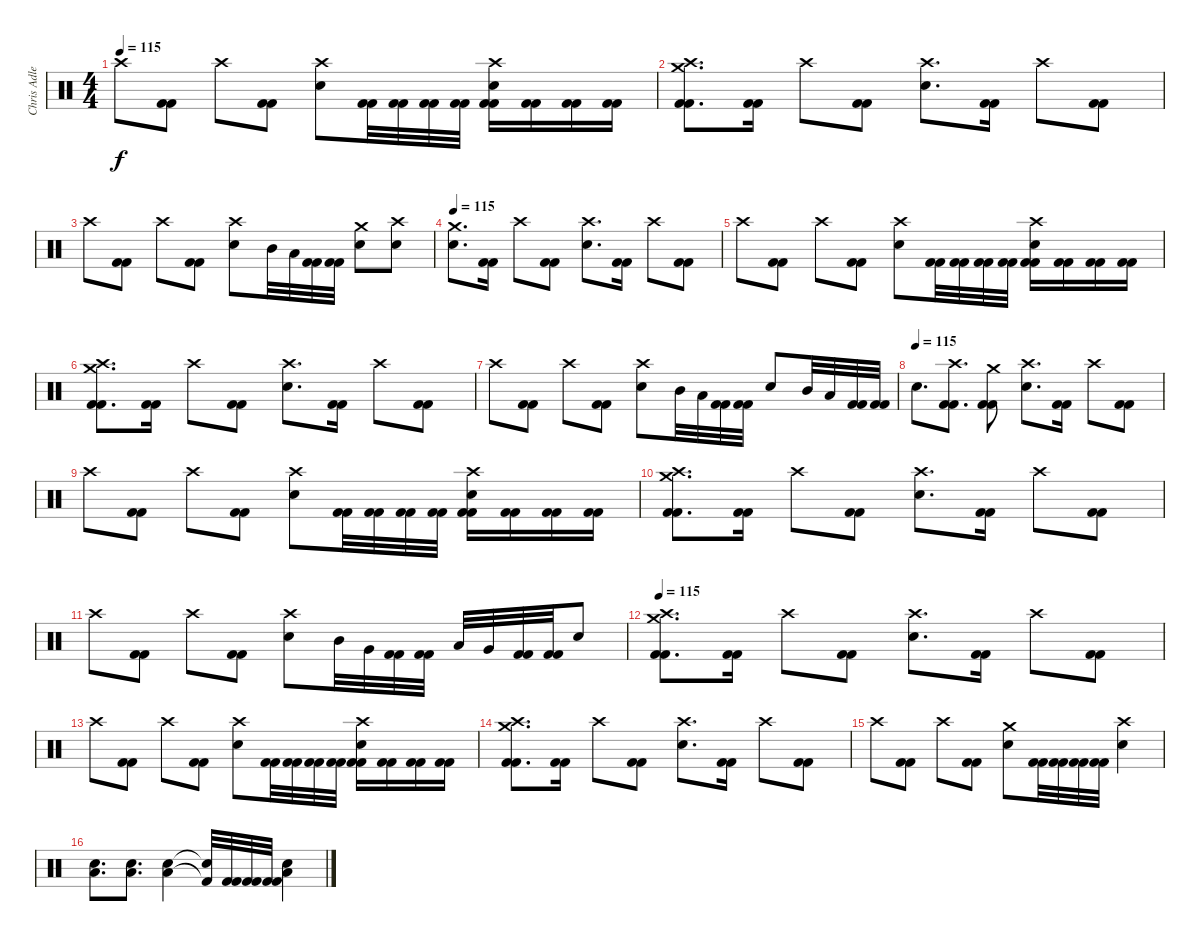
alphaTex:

\track ("Chris Adler" "Chris Adle") {instrument percussion}
\staff {score}
\articulation defaults
\ts (4 4)
\tempo 115
\clef neutral
\ks c "Crash high (hit)".8{dy f}
("Kick (hit) 2" "Kick (hit) 2").8 "Crash high (hit)".8 ("Kick (hit) 2" "Kick (hit) 2").8 ("Crash high (hit)" "Electric Snare (hit)").8 ("Kick (hit) 2" "Kick (hit) 2").32 ("Kick (hit) 2" "Kick (hit) 2").32 ("Kick (hit) 2" "Kick (hit) 2").32 ("Kick (hit) 2" "Kick (hit) 2").32 ("Crash high (hit)" "Electric Snare (hit)" "Kick (hit) 2" "Kick (hit) 2").16 ("Kick (hit) 2" "Kick (hit) 2").16 ("Kick (hit) 2" "Kick (hit) 2").16 ("Kick (hit) 2" "Kick (hit) 2").16 |
("Crash medium (hit)" "Crash high (hit)" "Kick (hit) 2" "Kick (hit) 2").8{d} ("Kick (hit) 2" "Kick (hit) 2").16 "Crash high (hit)".8 ("Kick (hit) 2" "Kick (hit) 2").8 ("Crash high (hit)" "Electric Snare (hit)").8{d} ("Kick (hit) 2" "Kick (hit) 2").16 "Crash high (hit)".8 ("Kick (hit) 2" "Kick (hit) 2").8 |
"Crash high (hit)".8 ("Kick (hit) 2" "Kick (hit) 2").8 "Crash high (hit)".8 ("Kick (hit) 2" "Kick (hit) 2").8 ("Crash high (hit)" "Electric Snare (hit)").8 "Mid Tom (hit)".32 "Low Tom (hit)".32 ("Kick (hit) 2" "Kick (hit) 2").32 ("Kick (hit) 2" "Kick (hit) 2").32 ("Crash medium (hit)" "Electric Snare (hit)").8 ("Crash high (hit)" "Electric Snare (hit)").8 |
\tempo 115
("Crash medium (hit)" "Electric Snare (hit)").8{d} ("Kick (hit) 2" "Kick (hit) 2").16 "Crash high (hit)".8 ("Kick (hit) 2" "Kick (hit) 2").8 ("Crash high (hit)" "Electric Snare (hit)").8{d} ("Kick (hit) 2" "Kick (hit) 2").16 "Crash high (hit)".8 ("Kick (hit) 2" "Kick (hit) 2").8 |
"Crash high (hit)".8 ("Kick (hit) 2" "Kick (hit) 2").8 "Crash high (hit)".8 ("Kick (hit) 2" "Kick (hit) 2").8 ("Crash high (hit)" "Electric Snare (hit)").8 ("Kick (hit) 2" "Kick (hit) 2").32 ("Kick (hit) 2" "Kick (hit) 2").32 ("Kick (hit) 2" "Kick (hit) 2").32 ("Kick (hit) 2" "Kick (hit) 2").32 ("Crash high (hit)" "Electric Snare (hit)" "Kick (hit) 2" "Kick (hit) 2").16 ("Kick (hit) 2" "Kick (hit) 2").16 ("Kick (hit) 2" "Kick (hit) 2").16 ("Kick (hit) 2" "Kick (hit) 2").16 |
("Crash medium (hit)" "Crash high (hit)" "Kick (hit) 2" "Kick (hit) 2").8{d} ("Kick (hit) 2" "Kick (hit) 2").16 "Crash high (hit)".8 ("Kick (hit) 2" "Kick (hit) 2").8 ("Crash high (hit)" "Electric Snare (hit)").8{d} ("Kick (hit) 2" "Kick (hit) 2").16 "Crash high (hit)".8 ("Kick (hit) 2" "Kick (hit) 2").8 |
"Crash high (hit)".8 ("Kick (hit) 2" "Kick (hit) 2").8 "Crash high (hit)".8 ("Kick (hit) 2" "Kick (hit) 2").8 ("Crash high (hit)" "Electric Snare (hit)").8 "Mid Tom (hit)".32 "Low Tom (hit)".32 ("Kick (hit) 2" "Kick (hit) 2").32 ("Kick (hit) 2" "Kick (hit) 2").32 "Electric Snare (hit)".8 "Mid Tom (hit)".32 "Low Tom (hit)".32 ("Kick (hit) 2" "Kick (hit) 2").32 ("Kick (hit) 2" "Kick (hit) 2").32 |
\tempo (115)
"Electric Snare (hit)".8{d} ("Crash high (hit)" "Kick (hit) 2" "Kick (hit) 2").8{d} ("Crash medium (hit)" "Kick (hit) 2" "Kick (hit) 2").8 ("Crash high (hit)" "Electric Snare (hit)").8{d} ("Kick (hit) 2" "Kick (hit) 2").16 "Crash high (hit)".8 ("Kick (hit) 2" "Kick (hit) 2").8 |
"Crash high (hit)".8 ("Kick (hit) 2" "Kick (hit) 2").8 "Crash high (hit)".8 ("Kick (hit) 2" "Kick (hit) 2").8 ("Crash high (hit)" "Electric Snare (hit)").8 ("Kick (hit) 2" "Kick (hit) 2").32 ("Kick (hit) 2" "Kick (hit) 2").32 ("Kick (hit) 2" "Kick (hit) 2").32 ("Kick (hit) 2" "Kick (hit) 2").32 ("Crash high (hit)" "Electric Snare (hit)" "Kick (hit) 2" "Kick (hit) 2").16 ("Kick (hit) 2" "Kick (hit) 2").16 ("Kick (hit) 2" "Kick (hit) 2").16 ("Kick (hit) 2" "Kick (hit) 2").16 |
("Crash medium (hit)" "Crash high (hit)" "Kick (hit) 2" "Kick (hit) 2").8{d} ("Kick (hit) 2" "Kick (hit) 2").16 "Crash high (hit)".8 ("Kick (hit) 2" "Kick (hit) 2").8 ("Crash high (hit)" "Electric Snare (hit)").8{d} ("Kick (hit) 2" "Kick (hit) 2").16 "Crash high (hit)".8 ("Kick (hit) 2" "Kick (hit) 2").8 |
"Crash high (hit)".8 ("Kick (hit) 2" "Kick (hit) 2").8 "Crash high (hit)".8 ("Kick (hit) 2" "Kick (hit) 2").8 ("Crash high (hit)" "Electric Snare (hit)").8 "Mid Tom (hit)".32 "Very Low Tom (hit)".32 ("Kick (hit) 2" "Kick (hit) 2").32 ("Kick (hit) 2" "Kick (hit) 2").32 "Low Tom (hit)".32 "Very Low Tom (hit)".32 ("Kick (hit) 2" "Kick (hit) 2").32 ("Kick (hit) 2" "Kick (hit) 2").32 "Electric Snare (hit)".8 |
\tempo 115
("Crash medium (hit)" "Crash high (hit)" "Kick (hit) 2" "Kick (hit) 2").8{d} ("Kick (hit) 2" "Kick (hit) 2").16 "Crash high (hit)".8 ("Kick (hit) 2" "Kick (hit) 2").8 ("Crash high (hit)" "Electric Snare (hit)").8{d} ("Kick (hit) 2" "Kick (hit) 2").16 "Crash high (hit)".8 ("Kick (hit) 2" "Kick (hit) 2").8 |
"Crash high (hit)".8 ("Kick (hit) 2" "Kick (hit) 2").8 "Crash high (hit)".8 ("Kick (hit) 2" "Kick (hit) 2").8 ("Crash high (hit)" "Electric Snare (hit)").8 ("Kick (hit) 2" "Kick (hit) 2").32 ("Kick (hit) 2" "Kick (hit) 2").32 ("Kick (hit) 2" "Kick (hit) 2").32 ("Kick (hit) 2" "Kick (hit) 2").32 ("Crash high (hit)" "Electric Snare (hit)" "Kick (hit) 2" "Kick (hit) 2").16 ("Kick (hit) 2" "Kick (hit) 2").16 ("Kick (hit) 2" "Kick (hit) 2").16 ("Kick (hit) 2" "Kick (hit) 2").16 |
("Crash medium (hit)" "Crash high (hit)" "Kick (hit) 2" "Kick (hit) 2").8{d} ("Kick (hit) 2" "Kick (hit) 2").16 "Crash high (hit)".8 ("Kick (hit) 2" "Kick (hit) 2").8 ("Crash high (hit)" "Electric Snare (hit)").8{d} ("Kick (hit) 2" "Kick (hit) 2").16 "Crash high (hit)".8 ("Kick (hit) 2" "Kick (hit) 2").8 |
"Crash high (hit)".8 ("Kick (hit) 2" "Kick (hit) 2").8 "Crash high (hit)".8 ("Kick (hit) 2" "Kick (hit) 2").8 ("Crash medium (hit)" "Electric Snare (hit)").8 ("Kick (hit) 2" "Kick (hit) 2").32 ("Kick (hit) 2" "Kick (hit) 2").32 ("Kick (hit) 2" "Kick (hit) 2").32 ("Kick (hit) 2" "Kick (hit) 2").32 ("Crash high (hit)" "Electric Snare (hit)").4 |
("Electric Snare (hit)" "Low Floor Tom (hit)").8{d} ("Electric Snare (hit)" "Low Floor Tom (hit)").8{d} ("Electric Snare (hit)" "Low Floor Tom (hit)").4 ("Snare (hit)"{t} "Kick (hit) 2"{t}).32 ("Kick (hit) 2" "Kick (hit) 2").32 ("Kick (hit) 2" "Kick (hit) 2").32 ("Kick (hit) 2" "Kick (hit) 2").32 ("Electric Snare (hit)" "Low Floor Tom (hit)").4
